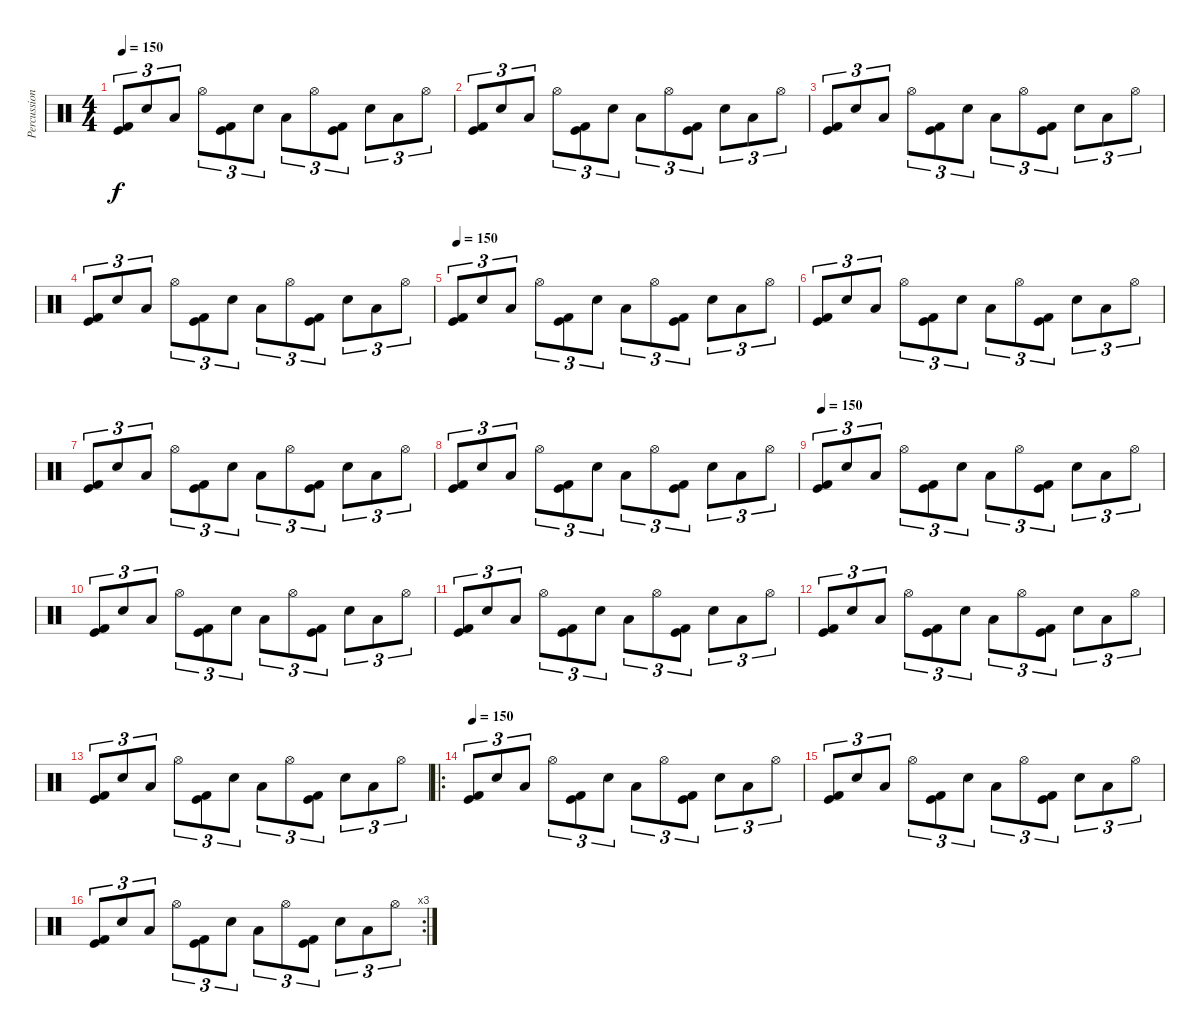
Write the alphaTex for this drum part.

\track ("Percussion" "Percussion") {instrument percussion}
\staff {score}
\articulation defaults
\ts (4 4)
\tempo 150
\clef neutral
\ks c
("Kick (hit)" "Kick (hit) 2").8{tu (3 2) dy f} "Snare (hit) 2".8{tu (3 2)} "Low Tom (hit)".8{tu (3 2)} "Hi-Hat (open)".8{tu (3 2)} ("Kick (hit)" "Kick (hit) 2").8{tu (3 2)} "Snare (hit) 2".8{tu (3 2)} "Low Tom (hit)".8{tu (3 2)} "Hi-Hat (open)".8{tu (3 2)} ("Kick (hit)" "Kick (hit) 2").8{tu (3 2)} "Snare (hit) 2".8{tu (3 2)} "Low Tom (hit)".8{tu (3 2)} "Hi-Hat (open)".8{tu (3 2)} |
("Kick (hit)" "Kick (hit) 2").8{tu (3 2)} "Snare (hit) 2".8{tu (3 2)} "Low Tom (hit)".8{tu (3 2)} "Hi-Hat (open)".8{tu (3 2)} ("Kick (hit)" "Kick (hit) 2").8{tu (3 2)} "Snare (hit) 2".8{tu (3 2)} "Low Tom (hit)".8{tu (3 2)} "Hi-Hat (open)".8{tu (3 2)} ("Kick (hit)" "Kick (hit) 2").8{tu (3 2)} "Snare (hit) 2".8{tu (3 2)} "Low Tom (hit)".8{tu (3 2)} "Hi-Hat (open)".8{tu (3 2)} |
("Kick (hit)" "Kick (hit) 2").8{tu (3 2)} "Snare (hit) 2".8{tu (3 2)} "Low Tom (hit)".8{tu (3 2)} "Hi-Hat (open)".8{tu (3 2)} ("Kick (hit)" "Kick (hit) 2").8{tu (3 2)} "Snare (hit) 2".8{tu (3 2)} "Low Tom (hit)".8{tu (3 2)} "Hi-Hat (open)".8{tu (3 2)} ("Kick (hit)" "Kick (hit) 2").8{tu (3 2)} "Snare (hit) 2".8{tu (3 2)} "Low Tom (hit)".8{tu (3 2)} "Hi-Hat (open)".8{tu (3 2)} |
("Kick (hit)" "Kick (hit) 2").8{tu (3 2)} "Snare (hit) 2".8{tu (3 2)} "Low Tom (hit)".8{tu (3 2)} "Hi-Hat (open)".8{tu (3 2)} ("Kick (hit)" "Kick (hit) 2").8{tu (3 2)} "Snare (hit) 2".8{tu (3 2)} "Low Tom (hit)".8{tu (3 2)} "Hi-Hat (open)".8{tu (3 2)} ("Kick (hit)" "Kick (hit) 2").8{tu (3 2)} "Snare (hit) 2".8{tu (3 2)} "Low Tom (hit)".8{tu (3 2)} "Hi-Hat (open)".8{tu (3 2)} |
\tempo 150
("Kick (hit)" "Kick (hit) 2").8{tu (3 2)} "Snare (hit) 2".8{tu (3 2)} "Low Tom (hit)".8{tu (3 2)} "Hi-Hat (open)".8{tu (3 2)} ("Kick (hit)" "Kick (hit) 2").8{tu (3 2)} "Snare (hit) 2".8{tu (3 2)} "Low Tom (hit)".8{tu (3 2)} "Hi-Hat (open)".8{tu (3 2)} ("Kick (hit)" "Kick (hit) 2").8{tu (3 2)} "Snare (hit) 2".8{tu (3 2)} "Low Tom (hit)".8{tu (3 2)} "Hi-Hat (open)".8{tu (3 2)} |
("Kick (hit)" "Kick (hit) 2").8{tu (3 2)} "Snare (hit) 2".8{tu (3 2)} "Low Tom (hit)".8{tu (3 2)} "Hi-Hat (open)".8{tu (3 2)} ("Kick (hit)" "Kick (hit) 2").8{tu (3 2)} "Snare (hit) 2".8{tu (3 2)} "Low Tom (hit)".8{tu (3 2)} "Hi-Hat (open)".8{tu (3 2)} ("Kick (hit)" "Kick (hit) 2").8{tu (3 2)} "Snare (hit) 2".8{tu (3 2)} "Low Tom (hit)".8{tu (3 2)} "Hi-Hat (open)".8{tu (3 2)} |
("Kick (hit)" "Kick (hit) 2").8{tu (3 2)} "Snare (hit) 2".8{tu (3 2)} "Low Tom (hit)".8{tu (3 2)} "Hi-Hat (open)".8{tu (3 2)} ("Kick (hit)" "Kick (hit) 2").8{tu (3 2)} "Snare (hit) 2".8{tu (3 2)} "Low Tom (hit)".8{tu (3 2)} "Hi-Hat (open)".8{tu (3 2)} ("Kick (hit)" "Kick (hit) 2").8{tu (3 2)} "Snare (hit) 2".8{tu (3 2)} "Low Tom (hit)".8{tu (3 2)} "Hi-Hat (open)".8{tu (3 2)} |
("Kick (hit)" "Kick (hit) 2").8{tu (3 2)} "Snare (hit) 2".8{tu (3 2)} "Low Tom (hit)".8{tu (3 2)} "Hi-Hat (open)".8{tu (3 2)} ("Kick (hit)" "Kick (hit) 2").8{tu (3 2)} "Snare (hit) 2".8{tu (3 2)} "Low Tom (hit)".8{tu (3 2)} "Hi-Hat (open)".8{tu (3 2)} ("Kick (hit)" "Kick (hit) 2").8{tu (3 2)} "Snare (hit) 2".8{tu (3 2)} "Low Tom (hit)".8{tu (3 2)} "Hi-Hat (open)".8{tu (3 2)} |
\tempo 150
("Kick (hit)" "Kick (hit) 2").8{tu (3 2)} "Snare (hit) 2".8{tu (3 2)} "Low Tom (hit)".8{tu (3 2)} "Hi-Hat (open)".8{tu (3 2)} ("Kick (hit)" "Kick (hit) 2").8{tu (3 2)} "Snare (hit) 2".8{tu (3 2)} "Low Tom (hit)".8{tu (3 2)} "Hi-Hat (open)".8{tu (3 2)} ("Kick (hit)" "Kick (hit) 2").8{tu (3 2)} "Snare (hit) 2".8{tu (3 2)} "Low Tom (hit)".8{tu (3 2)} "Hi-Hat (open)".8{tu (3 2)} |
("Kick (hit)" "Kick (hit) 2").8{tu (3 2)} "Snare (hit) 2".8{tu (3 2)} "Low Tom (hit)".8{tu (3 2)} "Hi-Hat (open)".8{tu (3 2)} ("Kick (hit)" "Kick (hit) 2").8{tu (3 2)} "Snare (hit) 2".8{tu (3 2)} "Low Tom (hit)".8{tu (3 2)} "Hi-Hat (open)".8{tu (3 2)} ("Kick (hit)" "Kick (hit) 2").8{tu (3 2)} "Snare (hit) 2".8{tu (3 2)} "Low Tom (hit)".8{tu (3 2)} "Hi-Hat (open)".8{tu (3 2)} |
("Kick (hit)" "Kick (hit) 2").8{tu (3 2)} "Snare (hit) 2".8{tu (3 2)} "Low Tom (hit)".8{tu (3 2)} "Hi-Hat (open)".8{tu (3 2)} ("Kick (hit)" "Kick (hit) 2").8{tu (3 2)} "Snare (hit) 2".8{tu (3 2)} "Low Tom (hit)".8{tu (3 2)} "Hi-Hat (open)".8{tu (3 2)} ("Kick (hit)" "Kick (hit) 2").8{tu (3 2)} "Snare (hit) 2".8{tu (3 2)} "Low Tom (hit)".8{tu (3 2)} "Hi-Hat (open)".8{tu (3 2)} |
("Kick (hit)" "Kick (hit) 2").8{tu (3 2)} "Snare (hit) 2".8{tu (3 2)} "Low Tom (hit)".8{tu (3 2)} "Hi-Hat (open)".8{tu (3 2)} ("Kick (hit)" "Kick (hit) 2").8{tu (3 2)} "Snare (hit) 2".8{tu (3 2)} "Low Tom (hit)".8{tu (3 2)} "Hi-Hat (open)".8{tu (3 2)} ("Kick (hit)" "Kick (hit) 2").8{tu (3 2)} "Snare (hit) 2".8{tu (3 2)} "Low Tom (hit)".8{tu (3 2)} "Hi-Hat (open)".8{tu (3 2)} |
("Kick (hit)" "Kick (hit) 2").8{tu (3 2)} "Snare (hit) 2".8{tu (3 2)} "Low Tom (hit)".8{tu (3 2)} "Hi-Hat (open)".8{tu (3 2)} ("Kick (hit)" "Kick (hit) 2").8{tu (3 2)} "Snare (hit) 2".8{tu (3 2)} "Low Tom (hit)".8{tu (3 2)} "Hi-Hat (open)".8{tu (3 2)} ("Kick (hit)" "Kick (hit) 2").8{tu (3 2)} "Snare (hit) 2".8{tu (3 2)} "Low Tom (hit)".8{tu (3 2)} "Hi-Hat (open)".8{tu (3 2)} |
\ro
\tempo 150
("Kick (hit)" "Kick (hit) 2").8{tu (3 2)} "Snare (hit) 2".8{tu (3 2)} "Low Tom (hit)".8{tu (3 2)} "Hi-Hat (open)".8{tu (3 2)} ("Kick (hit)" "Kick (hit) 2").8{tu (3 2)} "Snare (hit) 2".8{tu (3 2)} "Low Tom (hit)".8{tu (3 2)} "Hi-Hat (open)".8{tu (3 2)} ("Kick (hit)" "Kick (hit) 2").8{tu (3 2)} "Snare (hit) 2".8{tu (3 2)} "Low Tom (hit)".8{tu (3 2)} "Hi-Hat (open)".8{tu (3 2)} |
("Kick (hit)" "Kick (hit) 2").8{tu (3 2)} "Snare (hit) 2".8{tu (3 2)} "Low Tom (hit)".8{tu (3 2)} "Hi-Hat (open)".8{tu (3 2)} ("Kick (hit)" "Kick (hit) 2").8{tu (3 2)} "Snare (hit) 2".8{tu (3 2)} "Low Tom (hit)".8{tu (3 2)} "Hi-Hat (open)".8{tu (3 2)} ("Kick (hit)" "Kick (hit) 2").8{tu (3 2)} "Snare (hit) 2".8{tu (3 2)} "Low Tom (hit)".8{tu (3 2)} "Hi-Hat (open)".8{tu (3 2)} |
\rc 3
("Kick (hit)" "Kick (hit) 2").8{tu (3 2)} "Snare (hit) 2".8{tu (3 2)} "Low Tom (hit)".8{tu (3 2)} "Hi-Hat (open)".8{tu (3 2)} ("Kick (hit)" "Kick (hit) 2").8{tu (3 2)} "Snare (hit) 2".8{tu (3 2)} "Low Tom (hit)".8{tu (3 2)} "Hi-Hat (open)".8{tu (3 2)} ("Kick (hit)" "Kick (hit) 2").8{tu (3 2)} "Snare (hit) 2".8{tu (3 2)} "Low Tom (hit)".8{tu (3 2)} "Hi-Hat (open)".8{tu (3 2)}
